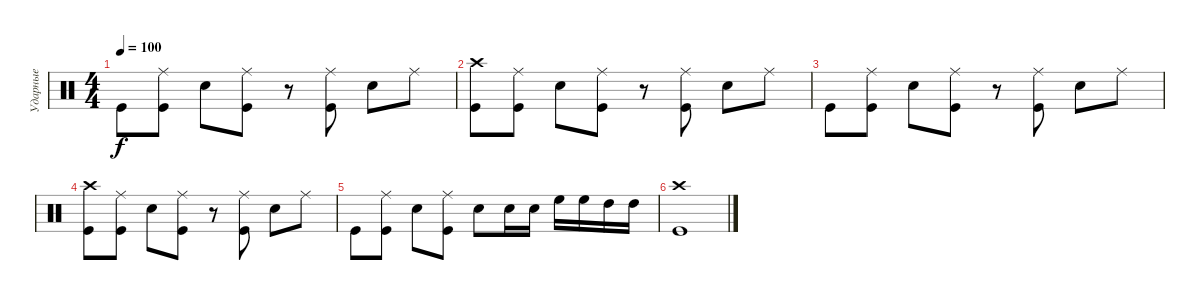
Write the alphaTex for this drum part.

\track ("Ударные" "Ударные") {instrument percussion}
\staff {score}
\articulation defaults
\ts (4 4)
\tempo 100
\clef neutral
\ks c "Kick (hit)".8{dy f}
("Kick (hit)" "Ride (middle)").8 "Snare (hit) 2".8 ("Ride (middle)" "Kick (hit)").8 r.8 ("Ride (middle)" "Kick (hit)").8 "Snare (hit) 2".8 "Ride (middle)".8 |
("Kick (hit)" "Crash high (hit)").8 ("Kick (hit)" "Ride (middle)").8 "Snare (hit) 2".8 ("Ride (middle)" "Kick (hit)").8 r.8 ("Ride (middle)" "Kick (hit)").8 "Snare (hit) 2".8 "Ride (middle)".8 |
"Kick (hit)".8 ("Kick (hit)" "Ride (middle)").8 "Snare (hit) 2".8 ("Ride (middle)" "Kick (hit)").8 r.8 ("Ride (middle)" "Kick (hit)").8 "Snare (hit) 2".8 "Ride (middle)".8 |
("Kick (hit)" "Crash high (hit)").8 ("Kick (hit)" "Ride (middle)").8 "Snare (hit) 2".8 ("Ride (middle)" "Kick (hit)").8 r.8 ("Ride (middle)" "Kick (hit)").8 "Snare (hit) 2".8 "Ride (middle)".8 |
"Kick (hit)".8 ("Kick (hit)" "Ride (middle)").8 "Snare (hit) 2".8 ("Kick (hit)" "Ride (middle)").8 "Snare (hit) 2".8 "Snare (hit) 2".16 "Snare (hit) 2".16 "High Floor Tom (hit)".16 "High Floor Tom (hit)".16 "High Tom (hit)".16 "High Tom (hit)".16 |
("Kick (hit)" "Crash high (hit)").1
